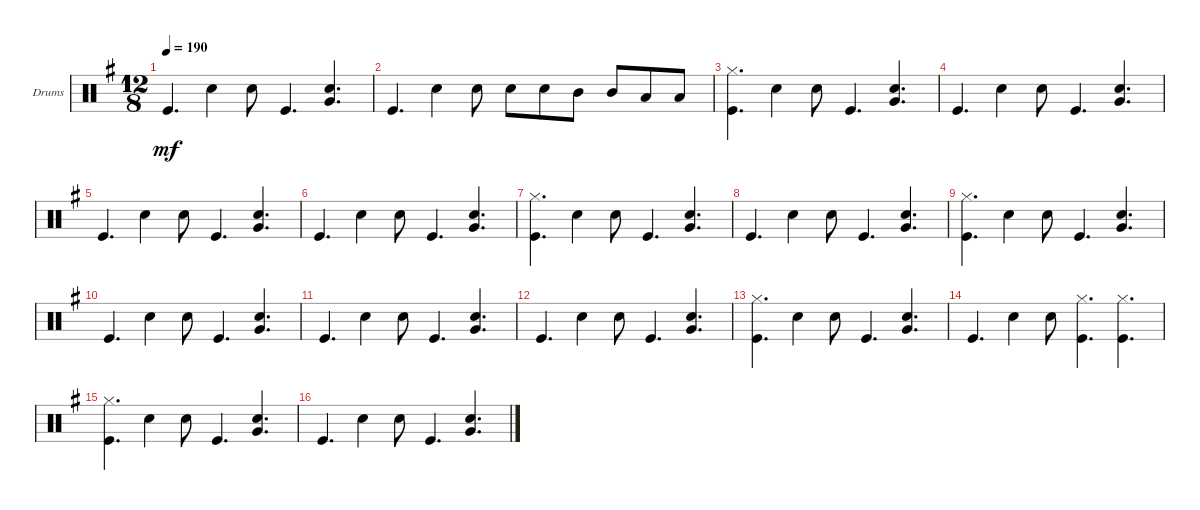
\defaultSystemsLayout 4
\bracketExtendMode groupsimilarinstruments
\firstSystemTrackNameOrientation horizontal
\otherSystemsTrackNameOrientation horizontal
\track ("Drumkit" "Drums") {instrument percussion}
\staff {score}
\articulation defaults
\ts (12 8)
\tempo 190
\clef neutral
\ks g "Kick (hit)".4{d dy mf} "Snare (hit) 2".4 "Snare (hit) 2".8 "Kick (hit)".4{d}
("Very Low Tom (hit)" "Snare (hit) 2").4{d} |
"Kick (hit)".4{d} "Snare (hit) 2".4 "Snare (hit) 2".8 "Snare (hit) 2".8 "Snare (hit) 2".8 "Mid Tom (hit)".8 "Mid Tom (hit)".8 "Low Tom (hit)".8 "Low Tom (hit)".8 |
("Hi-Hat (closed)" "Kick (hit)").4{d} "Snare (hit) 2".4 "Snare (hit) 2".8 "Kick (hit)".4{d} ("Very Low Tom (hit)" "Snare (hit) 2").4{d} |
"Kick (hit)".4{d} "Snare (hit) 2".4 "Snare (hit) 2".8 "Kick (hit)".4{d} ("Very Low Tom (hit)" "Snare (hit) 2").4{d} |
"Kick (hit)".4{d} "Snare (hit) 2".4 "Snare (hit) 2".8 "Kick (hit)".4{d} ("Very Low Tom (hit)" "Snare (hit) 2").4{d} |
"Kick (hit)".4{d} "Snare (hit) 2".4 "Snare (hit) 2".8 "Kick (hit)".4{d} ("Very Low Tom (hit)" "Snare (hit) 2").4{d} |
("Hi-Hat (closed)" "Kick (hit)").4{d} "Snare (hit) 2".4 "Snare (hit) 2".8 "Kick (hit)".4{d} ("Very Low Tom (hit)" "Snare (hit) 2").4{d} |
"Kick (hit)".4{d} "Snare (hit) 2".4 "Snare (hit) 2".8 "Kick (hit)".4{d} ("Very Low Tom (hit)" "Snare (hit) 2").4{d} |
("Hi-Hat (closed)" "Kick (hit)").4{d} "Snare (hit) 2".4 "Snare (hit) 2".8 "Kick (hit)".4{d} ("Very Low Tom (hit)" "Snare (hit) 2").4{d} |
"Kick (hit)".4{d} "Snare (hit) 2".4 "Snare (hit) 2".8 "Kick (hit)".4{d} ("Very Low Tom (hit)" "Snare (hit) 2").4{d} |
"Kick (hit)".4{d} "Snare (hit) 2".4 "Snare (hit) 2".8 "Kick (hit)".4{d} ("Very Low Tom (hit)" "Snare (hit) 2").4{d} |
"Kick (hit)".4{d} "Snare (hit) 2".4 "Snare (hit) 2".8 "Kick (hit)".4{d} ("Very Low Tom (hit)" "Snare (hit) 2").4{d} |
("Hi-Hat (closed)" "Kick (hit)").4{d} "Snare (hit) 2".4 "Snare (hit) 2".8 "Kick (hit)".4{d} ("Very Low Tom (hit)" "Snare (hit) 2").4{d} |
"Kick (hit)".4{d} "Snare (hit) 2".4 "Snare (hit) 2".8 ("Hi-Hat (closed)" "Kick (hit)").4{d} ("Kick (hit)" "Hi-Hat (closed)").4{d} |
("Hi-Hat (closed)" "Kick (hit)").4{d} "Snare (hit) 2".4 "Snare (hit) 2".8 "Kick (hit)".4{d} ("Very Low Tom (hit)" "Snare (hit) 2").4{d} |
"Kick (hit)".4{d} "Snare (hit) 2".4 "Snare (hit) 2".8 "Kick (hit)".4{d} ("Very Low Tom (hit)" "Snare (hit) 2").4{d}
